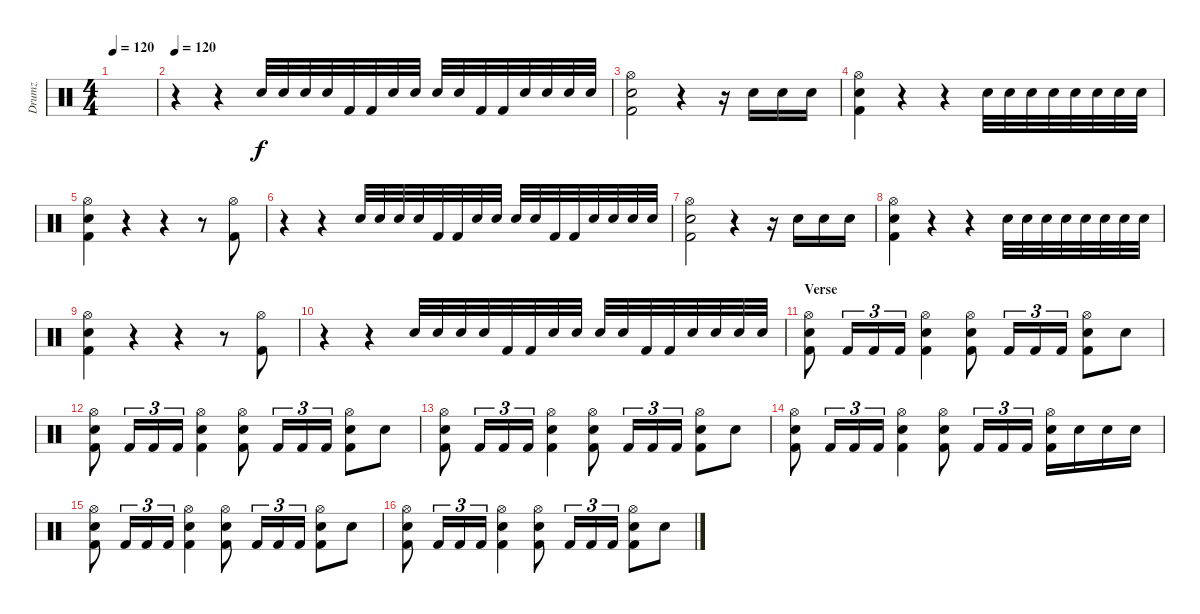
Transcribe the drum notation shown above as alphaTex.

\track ("Drumz" "Drumz") {instrument percussion}
\staff {score}
\articulation defaults
\ts (4 4)
\tempo 120
\clef neutral
\ks c
|
\tempo 120
r.4 r.4 "Snare (hit) 2".32 "Snare (hit) 2".32 "Snare (hit) 2".32 "Snare (hit) 2".32 "Kick (hit) 2".32 "Kick (hit) 2".32 "Snare (hit) 2".32 "Snare (hit) 2".32 "Snare (hit) 2".32 "Snare (hit) 2".32 "Kick (hit) 2".32 "Kick (hit) 2".32 "Snare (hit) 2".32 "Snare (hit) 2".32 "Snare (hit) 2".32 "Snare (hit) 2".32 |
("Hi-Hat (open)" "Snare (hit) 2" "Kick (hit) 2").2 r.4 r.16 "Snare (hit) 2".16 "Snare (hit) 2".16 "Snare (hit) 2".16 |
("Hi-Hat (open)" "Snare (hit) 2" "Kick (hit) 2").4 r.4 r.4 "Snare (hit) 2".32 "Snare (hit) 2".32 "Snare (hit) 2".32 "Snare (hit) 2".32 "Snare (hit) 2".32 "Snare (hit) 2".32 "Snare (hit) 2".32 "Snare (hit) 2".32 |
("Hi-Hat (open)" "Snare (hit) 2" "Kick (hit) 2").4 r.4 r.4 r.8 ("Hi-Hat (open)" "Kick (hit) 2").8 |
r.4 r.4 "Snare (hit) 2".32 "Snare (hit) 2".32 "Snare (hit) 2".32 "Snare (hit) 2".32 "Kick (hit) 2".32 "Kick (hit) 2".32 "Snare (hit) 2".32 "Snare (hit) 2".32 "Snare (hit) 2".32 "Snare (hit) 2".32 "Kick (hit) 2".32 "Kick (hit) 2".32 "Snare (hit) 2".32 "Snare (hit) 2".32 "Snare (hit) 2".32 "Snare (hit) 2".32 |
("Hi-Hat (open)" "Snare (hit) 2" "Kick (hit) 2").2 r.4 r.16 "Snare (hit) 2".16 "Snare (hit) 2".16 "Snare (hit) 2".16 |
("Hi-Hat (open)" "Snare (hit) 2" "Kick (hit) 2").4 r.4 r.4 "Snare (hit) 2".32 "Snare (hit) 2".32 "Snare (hit) 2".32 "Snare (hit) 2".32 "Snare (hit) 2".32 "Snare (hit) 2".32 "Snare (hit) 2".32 "Snare (hit) 2".32 |
("Hi-Hat (open)" "Snare (hit) 2" "Kick (hit) 2").4 r.4 r.4 r.8 ("Hi-Hat (open)" "Kick (hit) 2").8 |
r.4 r.4 "Snare (hit) 2".32 "Snare (hit) 2".32 "Snare (hit) 2".32 "Snare (hit) 2".32 "Kick (hit) 2".32 "Kick (hit) 2".32 "Snare (hit) 2".32 "Snare (hit) 2".32 "Snare (hit) 2".32 "Snare (hit) 2".32 "Kick (hit) 2".32 "Kick (hit) 2".32 "Snare (hit) 2".32 "Snare (hit) 2".32 "Snare (hit) 2".32 "Snare (hit) 2".32 |
\section ("" "Verse ")
("Hi-Hat (open)" "Snare (hit) 2" "Kick (hit) 2").8 "Kick (hit) 2".16{tu (3 2)} "Kick (hit) 2".16{tu (3 2)} "Kick (hit) 2".16{tu (3 2)} ("Hi-Hat (open)" "Snare (hit) 2" "Kick (hit) 2").4 ("Hi-Hat (open)" "Snare (hit) 2" "Kick (hit) 2").8 "Kick (hit) 2".16{tu (3 2)} "Kick (hit) 2".16{tu (3 2)} "Kick (hit) 2".16{tu (3 2)} ("Hi-Hat (open)" "Snare (hit) 2" "Kick (hit) 2").8 "Snare (hit) 2".8 |
("Hi-Hat (open)" "Snare (hit) 2" "Kick (hit) 2").8 "Kick (hit) 2".16{tu (3 2)} "Kick (hit) 2".16{tu (3 2)} "Kick (hit) 2".16{tu (3 2)} ("Hi-Hat (open)" "Snare (hit) 2" "Kick (hit) 2").4 ("Hi-Hat (open)" "Snare (hit) 2" "Kick (hit) 2").8 "Kick (hit) 2".16{tu (3 2)} "Kick (hit) 2".16{tu (3 2)} "Kick (hit) 2".16{tu (3 2)} ("Hi-Hat (open)" "Snare (hit) 2" "Kick (hit) 2").8 "Snare (hit) 2".8 |
("Hi-Hat (open)" "Snare (hit) 2" "Kick (hit) 2").8 "Kick (hit) 2".16{tu (3 2)} "Kick (hit) 2".16{tu (3 2)} "Kick (hit) 2".16{tu (3 2)} ("Hi-Hat (open)" "Snare (hit) 2" "Kick (hit) 2").4 ("Hi-Hat (open)" "Snare (hit) 2" "Kick (hit) 2").8 "Kick (hit) 2".16{tu (3 2)} "Kick (hit) 2".16{tu (3 2)} "Kick (hit) 2".16{tu (3 2)} ("Hi-Hat (open)" "Snare (hit) 2" "Kick (hit) 2").8 "Snare (hit) 2".8 |
("Hi-Hat (open)" "Snare (hit) 2" "Kick (hit) 2").8 "Kick (hit) 2".16{tu (3 2)} "Kick (hit) 2".16{tu (3 2)} "Kick (hit) 2".16{tu (3 2)} ("Hi-Hat (open)" "Snare (hit) 2" "Kick (hit) 2").4 ("Hi-Hat (open)" "Snare (hit) 2" "Kick (hit) 2").8 "Kick (hit) 2".16{tu (3 2)} "Kick (hit) 2".16{tu (3 2)} "Kick (hit) 2".16{tu (3 2)} ("Hi-Hat (open)" "Snare (hit) 2" "Kick (hit) 2").16 "Snare (hit) 2".16 "Snare (hit) 2".16 "Snare (hit) 2".16 |
("Hi-Hat (open)" "Snare (hit) 2" "Kick (hit) 2").8 "Kick (hit) 2".16{tu (3 2)} "Kick (hit) 2".16{tu (3 2)} "Kick (hit) 2".16{tu (3 2)} ("Hi-Hat (open)" "Snare (hit) 2" "Kick (hit) 2").4 ("Hi-Hat (open)" "Snare (hit) 2" "Kick (hit) 2").8 "Kick (hit) 2".16{tu (3 2)} "Kick (hit) 2".16{tu (3 2)} "Kick (hit) 2".16{tu (3 2)} ("Hi-Hat (open)" "Snare (hit) 2" "Kick (hit) 2").8 "Snare (hit) 2".8 |
("Hi-Hat (open)" "Snare (hit) 2" "Kick (hit) 2").8 "Kick (hit) 2".16{tu (3 2)} "Kick (hit) 2".16{tu (3 2)} "Kick (hit) 2".16{tu (3 2)} ("Hi-Hat (open)" "Snare (hit) 2" "Kick (hit) 2").4 ("Hi-Hat (open)" "Snare (hit) 2" "Kick (hit) 2").8 "Kick (hit) 2".16{tu (3 2)} "Kick (hit) 2".16{tu (3 2)} "Kick (hit) 2".16{tu (3 2)} ("Hi-Hat (open)" "Snare (hit) 2" "Kick (hit) 2").8 "Snare (hit) 2".8
